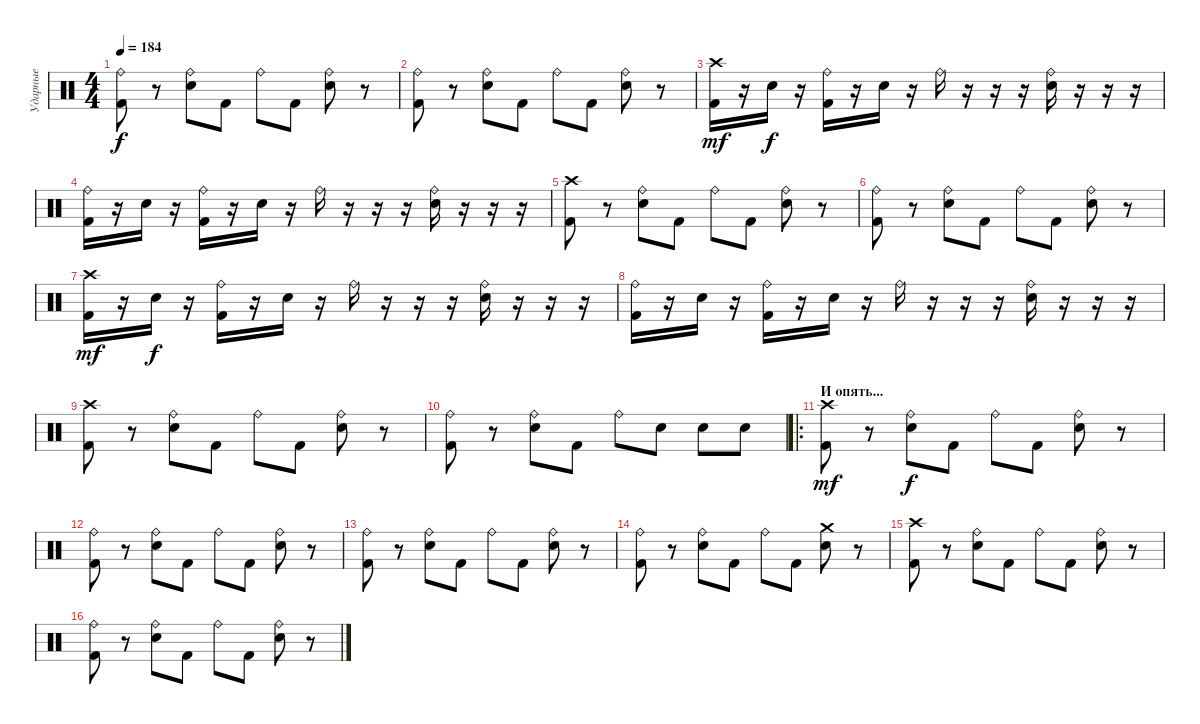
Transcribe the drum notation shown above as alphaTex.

\track ("Ударные" "Ударные") {instrument percussion}
\staff {score}
\articulation defaults
\ts (4 4)
\tempo 184
\clef neutral
\ks c
("Ride (bell)" "Kick (hit) 2").8{dy f} r.8 ("Ride (bell)" "Snare (hit) 2").8 "Kick (hit) 2".8 "Ride (bell)".8 "Kick (hit) 2".8 ("Ride (bell)" "Snare (hit) 2").8 r.8 |
("Ride (bell)" "Kick (hit) 2").8 r.8 ("Ride (bell)" "Snare (hit) 2").8 "Kick (hit) 2".8 "Ride (bell)".8 "Kick (hit) 2".8 ("Ride (bell)" "Snare (hit) 2").8 r.8 |
("Crash high (hit)" "Kick (hit) 2").16{dy mf} r.16 "Snare (hit) 2".16{dy f} r.16 ("Ride (bell)" "Kick (hit) 2").16 r.16 "Snare (hit) 2".16 r.16 "Ride (bell)".16 r.16 r.16 r.16 ("Ride (bell)" "Snare (hit) 2").16 r.16 r.16 r.16 |
("Ride (bell)" "Kick (hit) 2").16 r.16 "Snare (hit) 2".16 r.16 ("Ride (bell)" "Kick (hit) 2").16 r.16 "Snare (hit) 2".16 r.16 "Ride (bell)".16 r.16 r.16 r.16 ("Ride (bell)" "Snare (hit) 2").16 r.16 r.16 r.16 |
("Crash high (hit)" "Kick (hit) 2").8 r.8 ("Ride (bell)" "Snare (hit) 2").8 "Kick (hit) 2".8 "Ride (bell)".8 "Kick (hit) 2".8 ("Ride (bell)" "Snare (hit) 2").8 r.8 |
("Ride (bell)" "Kick (hit) 2").8 r.8 ("Ride (bell)" "Snare (hit) 2").8 "Kick (hit) 2".8 "Ride (bell)".8 "Kick (hit) 2".8 ("Ride (bell)" "Snare (hit) 2").8 r.8 |
("Crash high (hit)" "Kick (hit) 2").16{dy mf} r.16 "Snare (hit) 2".16{dy f} r.16 ("Ride (bell)" "Kick (hit) 2").16 r.16 "Snare (hit) 2".16 r.16 "Ride (bell)".16 r.16 r.16 r.16 ("Ride (bell)" "Snare (hit) 2").16 r.16 r.16 r.16 |
("Ride (bell)" "Kick (hit) 2").16 r.16 "Snare (hit) 2".16 r.16 ("Ride (bell)" "Kick (hit) 2").16 r.16 "Snare (hit) 2".16 r.16 "Ride (bell)".16 r.16 r.16 r.16 ("Ride (bell)" "Snare (hit) 2").16 r.16 r.16 r.16 |
("Crash high (hit)" "Kick (hit) 2").8 r.8 ("Ride (bell)" "Snare (hit) 2").8 "Kick (hit) 2".8 "Ride (bell)".8 "Kick (hit) 2".8 ("Ride (bell)" "Snare (hit) 2").8 r.8 |
("Ride (bell)" "Kick (hit) 2").8 r.8 ("Ride (bell)" "Snare (hit) 2").8 "Kick (hit) 2".8 "Ride (bell)".8 "Snare (hit) 2".8 "Snare (hit) 2".8 "Snare (hit) 2".8 |
\ro
\section ("" "И опять...")
("Crash high (hit)" "Kick (hit) 2").8{dy mf} r.8 ("Ride (bell)" "Snare (hit) 2").8{dy f} "Kick (hit) 2".8 "Ride (bell)".8 "Kick (hit) 2".8 ("Ride (bell)" "Snare (hit) 2").8 r.8 |
("Ride (bell)" "Kick (hit) 2").8 r.8 ("Ride (bell)" "Snare (hit) 2").8 "Kick (hit) 2".8 "Ride (bell)".8 "Kick (hit) 2".8 ("Ride (bell)" "Snare (hit) 2").8 r.8 |
("Ride (bell)" "Kick (hit) 2").8 r.8 ("Ride (bell)" "Snare (hit) 2").8 "Kick (hit) 2".8 "Ride (bell)".8 "Kick (hit) 2".8 ("Ride (bell)" "Snare (hit) 2").8 r.8 |
("Ride (bell)" "Kick (hit) 2").8 r.8 ("Ride (bell)" "Snare (hit) 2").8 "Kick (hit) 2".8 "Ride (bell)".8 "Kick (hit) 2".8 ("Crash medium (hit)" "Snare (hit) 2").8 r.8 |
("Crash high (hit)" "Kick (hit) 2").8 r.8 ("Ride (bell)" "Snare (hit) 2").8 "Kick (hit) 2".8 "Ride (bell)".8 "Kick (hit) 2".8 ("Ride (bell)" "Snare (hit) 2").8 r.8 |
("Ride (bell)" "Kick (hit) 2").8 r.8 ("Ride (bell)" "Snare (hit) 2").8 "Kick (hit) 2".8 "Ride (bell)".8 "Kick (hit) 2".8 ("Ride (bell)" "Snare (hit) 2").8 r.8
